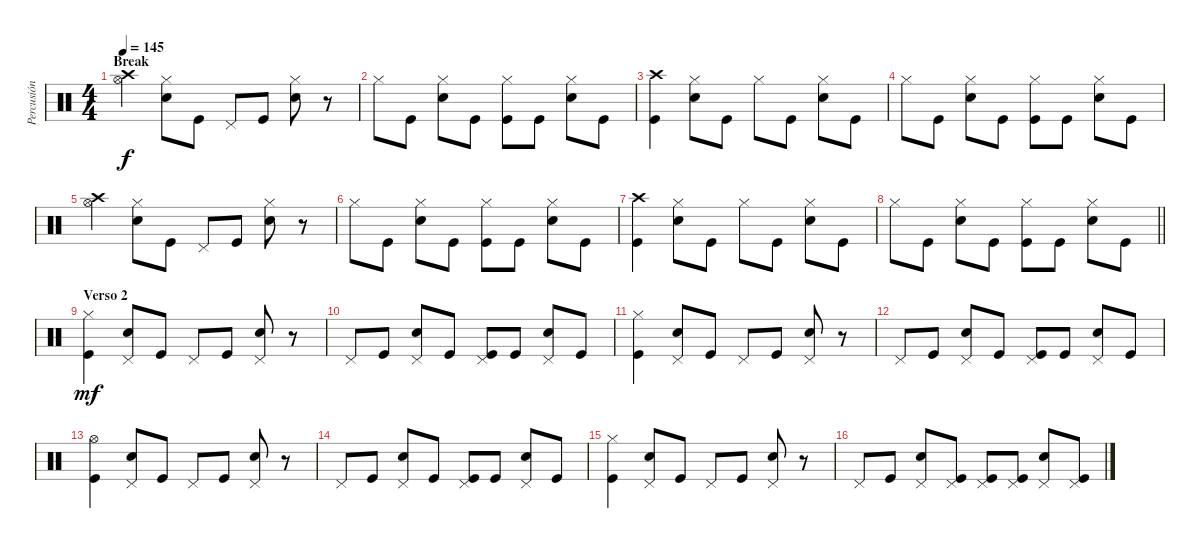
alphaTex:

\track ("Percusión" "Percusión") {instrument percussion}
\staff {score}
\articulation defaults
\ts (4 4)
\section ("" "Break")
\tempo 145
\clef neutral
\ks c
("Crash high (hit)" "Hi-Hat (open)").4{dy f} ("Hi-Hat (closed)" "Snare (hit) 2").8 "Kick (hit)".8 "Pedal Hi-Hat (hit)".8 "Kick (hit)".8 ("Hi-Hat (closed)" "Snare (hit) 2").8 r.8 |
"Hi-Hat (closed)".8 "Kick (hit)".8 ("Hi-Hat (closed)" "Snare (hit) 2").8 "Kick (hit)".8 ("Hi-Hat (closed)" "Kick (hit)").8 "Kick (hit)".8 ("Hi-Hat (closed)" "Snare (hit) 2").8 "Kick (hit)".8 |
("Crash high (hit)" "Kick (hit)").4 ("Hi-Hat (closed)" "Snare (hit) 2").8 "Kick (hit)".8 "Hi-Hat (closed)".8 "Kick (hit)".8 ("Hi-Hat (closed)" "Snare (hit) 2").8 "Kick (hit)".8 |
"Hi-Hat (closed)".8 "Kick (hit)".8 ("Hi-Hat (closed)" "Snare (hit) 2").8 "Kick (hit)".8 ("Hi-Hat (closed)" "Kick (hit)").8 "Kick (hit)".8 ("Hi-Hat (closed)" "Snare (hit) 2").8 "Kick (hit)".8 |
("Crash high (hit)" "Hi-Hat (open)").4 ("Hi-Hat (closed)" "Snare (hit) 2").8 "Kick (hit)".8 "Pedal Hi-Hat (hit)".8 "Kick (hit)".8 ("Hi-Hat (closed)" "Snare (hit) 2").8 r.8 |
"Hi-Hat (closed)".8 "Kick (hit)".8 ("Hi-Hat (closed)" "Snare (hit) 2").8 "Kick (hit)".8 ("Hi-Hat (closed)" "Kick (hit)").8 "Kick (hit)".8 ("Hi-Hat (closed)" "Snare (hit) 2").8 "Kick (hit)".8 |
("Crash high (hit)" "Kick (hit)").4 ("Hi-Hat (closed)" "Snare (hit) 2").8 "Kick (hit)".8 "Hi-Hat (closed)".8 "Kick (hit)".8 ("Hi-Hat (closed)" "Snare (hit) 2").8 "Kick (hit)".8 |
\barLineRight lightlight "Hi-Hat (closed)".8 "Kick (hit)".8
("Hi-Hat (closed)" "Snare (hit) 2").8 "Kick (hit)".8 ("Hi-Hat (closed)" "Kick (hit)").8 "Kick (hit)".8 ("Hi-Hat (closed)" "Snare (hit) 2").8 "Kick (hit)".8 |
\section ("" "Verso 2")
("Hi-Hat (closed)" "Kick (hit)").4{dy mf} ("Pedal Hi-Hat (hit)" "Snare (hit) 2").8 "Kick (hit)".8 "Pedal Hi-Hat (hit)".8 "Kick (hit)".8 ("Pedal Hi-Hat (hit)" "Snare (hit) 2").8 r.8 |
"Pedal Hi-Hat (hit)".8 "Kick (hit)".8 ("Pedal Hi-Hat (hit)" "Snare (hit) 2").8 "Kick (hit)".8 ("Pedal Hi-Hat (hit)" "Kick (hit)").8 "Kick (hit)".8 ("Pedal Hi-Hat (hit)" "Snare (hit) 2").8 "Kick (hit)".8 |
("Hi-Hat (closed)" "Kick (hit)").4 ("Pedal Hi-Hat (hit)" "Snare (hit) 2").8 "Kick (hit)".8 "Pedal Hi-Hat (hit)".8 "Kick (hit)".8 ("Pedal Hi-Hat (hit)" "Snare (hit) 2").8 r.8 |
"Pedal Hi-Hat (hit)".8 "Kick (hit)".8 ("Pedal Hi-Hat (hit)" "Snare (hit) 2").8 "Kick (hit)".8 ("Pedal Hi-Hat (hit)" "Kick (hit)").8 "Kick (hit)".8 ("Pedal Hi-Hat (hit)" "Snare (hit) 2").8 "Kick (hit)".8 |
("Hi-Hat (open)" "Kick (hit)").4 ("Pedal Hi-Hat (hit)" "Snare (hit) 2").8 "Kick (hit)".8 "Pedal Hi-Hat (hit)".8 "Kick (hit)".8 ("Pedal Hi-Hat (hit)" "Snare (hit) 2").8 r.8 |
"Pedal Hi-Hat (hit)".8 "Kick (hit)".8 ("Pedal Hi-Hat (hit)" "Snare (hit) 2").8 "Kick (hit)".8 ("Pedal Hi-Hat (hit)" "Kick (hit)").8 "Kick (hit)".8 ("Pedal Hi-Hat (hit)" "Snare (hit) 2").8 "Kick (hit)".8 |
("Hi-Hat (closed)" "Kick (hit)").4 ("Pedal Hi-Hat (hit)" "Snare (hit) 2").8 "Kick (hit)".8 "Pedal Hi-Hat (hit)".8 "Kick (hit)".8 ("Pedal Hi-Hat (hit)" "Snare (hit) 2").8 r.8 |
"Pedal Hi-Hat (hit)".8 "Kick (hit)".8 ("Pedal Hi-Hat (hit)" "Snare (hit) 2").8 ("Pedal Hi-Hat (hit)" "Kick (hit)").8 ("Pedal Hi-Hat (hit)" "Kick (hit)").8 ("Pedal Hi-Hat (hit)" "Kick (hit)").8 ("Pedal Hi-Hat (hit)" "Snare (hit) 2").8 ("Pedal Hi-Hat (hit)" "Kick (hit)").8
